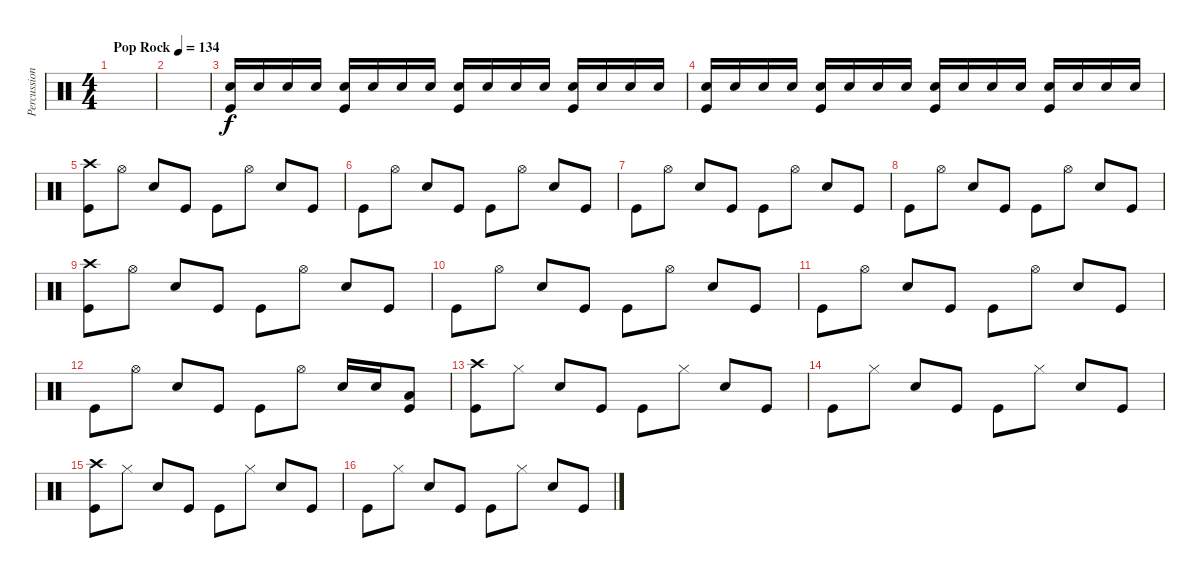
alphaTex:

\track ("Percussion" "Percussion") {instrument percussion}
\staff {score}
\articulation defaults
\ts (4 4)
\tempo (134 "Pop Rock")
\clef neutral
\ks c
|
|
("Electric Snare (hit)" "Kick (hit)").16 "Electric Snare (hit)".16 "Electric Snare (hit)".16 "Electric Snare (hit)".16 ("Electric Snare (hit)" "Kick (hit)").16 "Electric Snare (hit)".16 "Electric Snare (hit)".16 "Electric Snare (hit)".16 ("Electric Snare (hit)" "Kick (hit)").16 "Electric Snare (hit)".16 "Electric Snare (hit)".16 "Electric Snare (hit)".16 ("Electric Snare (hit)" "Kick (hit)").16 "Electric Snare (hit)".16 "Electric Snare (hit)".16 "Electric Snare (hit)".16 |
("Electric Snare (hit)" "Kick (hit)").16 "Electric Snare (hit)".16 "Electric Snare (hit)".16 "Electric Snare (hit)".16 ("Electric Snare (hit)" "Kick (hit)").16 "Electric Snare (hit)".16 "Electric Snare (hit)".16 "Electric Snare (hit)".16 ("Electric Snare (hit)" "Kick (hit)").16 "Electric Snare (hit)".16 "Electric Snare (hit)".16 "Electric Snare (hit)".16 ("Electric Snare (hit)" "Kick (hit)").16 "Electric Snare (hit)".16 "Electric Snare (hit)".16 "Electric Snare (hit)".16 |
("Crash high (hit)" "Kick (hit)").8 "Hi-Hat (open)".8 "Electric Snare (hit)".8 "Kick (hit)".8 "Kick (hit)".8 "Hi-Hat (open)".8 "Electric Snare (hit)".8 "Kick (hit)".8 |
"Kick (hit)".8 "Hi-Hat (open)".8 "Electric Snare (hit)".8 "Kick (hit)".8 "Kick (hit)".8 "Hi-Hat (open)".8 "Electric Snare (hit)".8 "Kick (hit)".8 |
"Kick (hit)".8 "Hi-Hat (open)".8 "Electric Snare (hit)".8 "Kick (hit)".8 "Kick (hit)".8 "Hi-Hat (open)".8 "Electric Snare (hit)".8 "Kick (hit)".8 |
"Kick (hit)".8 "Hi-Hat (open)".8 "Electric Snare (hit)".8 "Kick (hit)".8 "Kick (hit)".8 "Hi-Hat (open)".8 "Electric Snare (hit)".8 "Kick (hit)".8 |
("Crash high (hit)" "Kick (hit)").8 "Hi-Hat (open)".8 "Electric Snare (hit)".8 "Kick (hit)".8 "Kick (hit)".8 "Hi-Hat (open)".8 "Electric Snare (hit)".8 "Kick (hit)".8 |
"Kick (hit)".8 "Hi-Hat (open)".8 "Electric Snare (hit)".8 "Kick (hit)".8 "Kick (hit)".8 "Hi-Hat (open)".8 "Electric Snare (hit)".8 "Kick (hit)".8 |
"Kick (hit)".8 "Hi-Hat (open)".8 "Electric Snare (hit)".8 "Kick (hit)".8 "Kick (hit)".8 "Hi-Hat (open)".8 "Electric Snare (hit)".8 "Kick (hit)".8 |
"Kick (hit)".8 "Hi-Hat (open)".8 "Electric Snare (hit)".8 "Kick (hit)".8 "Kick (hit)".8 "Hi-Hat (open)".8 "Electric Snare (hit)".16 "Electric Snare (hit)".16 ("Low Tom (hit)" "Kick (hit)").8 |
("Crash high (hit)" "Kick (hit)").8 "Hi-Hat (closed)".8 "Electric Snare (hit)".8 "Kick (hit)".8 "Kick (hit)".8 "Hi-Hat (closed)".8 "Electric Snare (hit)".8 "Kick (hit)".8 |
"Kick (hit)".8 "Hi-Hat (closed)".8 "Electric Snare (hit)".8 "Kick (hit)".8 "Kick (hit)".8 "Hi-Hat (closed)".8 "Electric Snare (hit)".8 "Kick (hit)".8 |
("Crash high (hit)" "Kick (hit)").8 "Hi-Hat (closed)".8 "Electric Snare (hit)".8 "Kick (hit)".8 "Kick (hit)".8 "Hi-Hat (closed)".8 "Electric Snare (hit)".8 "Kick (hit)".8 |
"Kick (hit)".8 "Hi-Hat (closed)".8 "Electric Snare (hit)".8 "Kick (hit)".8 "Kick (hit)".8 "Hi-Hat (closed)".8 "Electric Snare (hit)".8 "Kick (hit)".8
